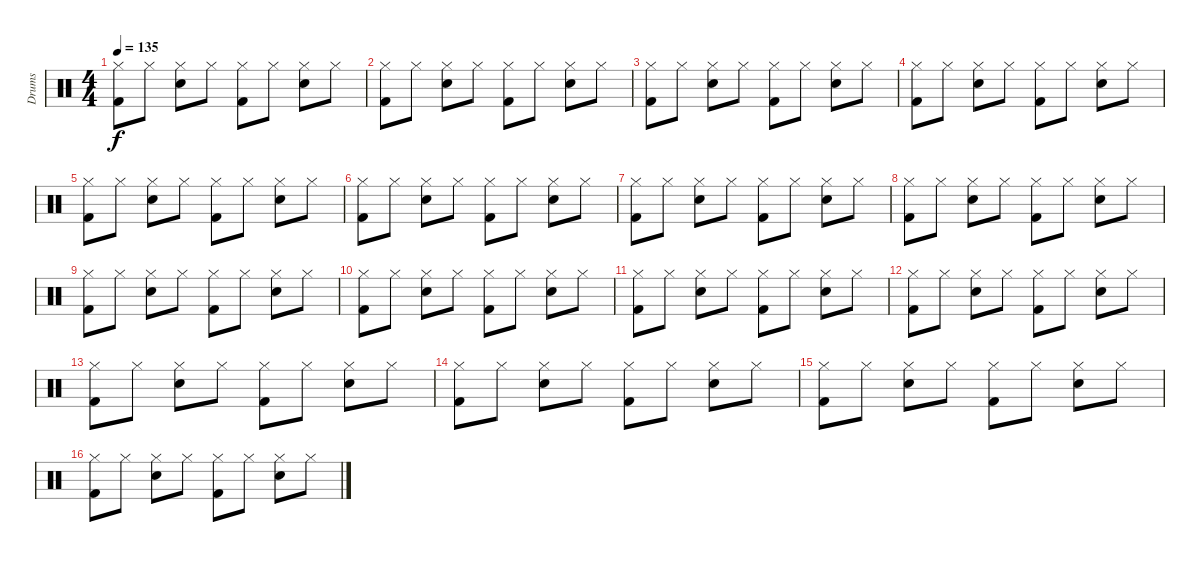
\track ("Drums" "Drums") {instrument percussion}
\staff {score}
\articulation defaults
\ts (4 4)
\tempo 135
\clef neutral
\ks c
("Hi-Hat (closed)" "Kick (hit) 2").8{dy f} "Hi-Hat (closed)".8 ("Hi-Hat (closed)" "Snare (hit) 2").8 "Hi-Hat (closed)".8 ("Hi-Hat (closed)" "Kick (hit) 2").8 "Hi-Hat (closed)".8 ("Hi-Hat (closed)" "Snare (hit) 2").8 "Hi-Hat (closed)".8 |
("Hi-Hat (closed)" "Kick (hit) 2").8 "Hi-Hat (closed)".8 ("Hi-Hat (closed)" "Snare (hit) 2").8 "Hi-Hat (closed)".8 ("Hi-Hat (closed)" "Kick (hit) 2").8 "Hi-Hat (closed)".8 ("Hi-Hat (closed)" "Snare (hit) 2").8 "Hi-Hat (closed)".8 |
("Hi-Hat (closed)" "Kick (hit) 2").8 "Hi-Hat (closed)".8 ("Hi-Hat (closed)" "Snare (hit) 2").8 "Hi-Hat (closed)".8 ("Hi-Hat (closed)" "Kick (hit) 2").8 "Hi-Hat (closed)".8 ("Hi-Hat (closed)" "Snare (hit) 2").8 "Hi-Hat (closed)".8 |
("Hi-Hat (closed)" "Kick (hit) 2").8 "Hi-Hat (closed)".8 ("Hi-Hat (closed)" "Snare (hit) 2").8 "Hi-Hat (closed)".8 ("Hi-Hat (closed)" "Kick (hit) 2").8 "Hi-Hat (closed)".8 ("Hi-Hat (closed)" "Snare (hit) 2").8 "Hi-Hat (closed)".8 |
("Hi-Hat (closed)" "Kick (hit) 2").8 "Hi-Hat (closed)".8 ("Hi-Hat (closed)" "Snare (hit) 2").8 "Hi-Hat (closed)".8 ("Hi-Hat (closed)" "Kick (hit) 2").8 "Hi-Hat (closed)".8 ("Hi-Hat (closed)" "Snare (hit) 2").8 "Hi-Hat (closed)".8 |
("Hi-Hat (closed)" "Kick (hit) 2").8 "Hi-Hat (closed)".8 ("Hi-Hat (closed)" "Snare (hit) 2").8 "Hi-Hat (closed)".8 ("Hi-Hat (closed)" "Kick (hit) 2").8 "Hi-Hat (closed)".8 ("Hi-Hat (closed)" "Snare (hit) 2").8 "Hi-Hat (closed)".8 |
("Hi-Hat (closed)" "Kick (hit) 2").8 "Hi-Hat (closed)".8 ("Hi-Hat (closed)" "Snare (hit) 2").8 "Hi-Hat (closed)".8 ("Hi-Hat (closed)" "Kick (hit) 2").8 "Hi-Hat (closed)".8 ("Hi-Hat (closed)" "Snare (hit) 2").8 "Hi-Hat (closed)".8 |
("Hi-Hat (closed)" "Kick (hit) 2").8 "Hi-Hat (closed)".8 ("Hi-Hat (closed)" "Snare (hit) 2").8 "Hi-Hat (closed)".8 ("Hi-Hat (closed)" "Kick (hit) 2").8 "Hi-Hat (closed)".8 ("Hi-Hat (closed)" "Snare (hit) 2").8 "Hi-Hat (closed)".8 |
("Hi-Hat (closed)" "Kick (hit) 2").8 "Hi-Hat (closed)".8 ("Hi-Hat (closed)" "Snare (hit) 2").8 "Hi-Hat (closed)".8 ("Hi-Hat (closed)" "Kick (hit) 2").8 "Hi-Hat (closed)".8 ("Hi-Hat (closed)" "Snare (hit) 2").8 "Hi-Hat (closed)".8 |
("Hi-Hat (closed)" "Kick (hit) 2").8 "Hi-Hat (closed)".8 ("Hi-Hat (closed)" "Snare (hit) 2").8 "Hi-Hat (closed)".8 ("Hi-Hat (closed)" "Kick (hit) 2").8 "Hi-Hat (closed)".8 ("Hi-Hat (closed)" "Snare (hit) 2").8 "Hi-Hat (closed)".8 |
("Hi-Hat (closed)" "Kick (hit) 2").8 "Hi-Hat (closed)".8 ("Hi-Hat (closed)" "Snare (hit) 2").8 "Hi-Hat (closed)".8 ("Hi-Hat (closed)" "Kick (hit) 2").8 "Hi-Hat (closed)".8 ("Hi-Hat (closed)" "Snare (hit) 2").8 "Hi-Hat (closed)".8 |
("Hi-Hat (closed)" "Kick (hit) 2").8 "Hi-Hat (closed)".8 ("Hi-Hat (closed)" "Snare (hit) 2").8 "Hi-Hat (closed)".8 ("Hi-Hat (closed)" "Kick (hit) 2").8 "Hi-Hat (closed)".8 ("Hi-Hat (closed)" "Snare (hit) 2").8 "Hi-Hat (closed)".8 |
("Hi-Hat (closed)" "Kick (hit) 2").8{volume 12} "Hi-Hat (closed)".8 ("Hi-Hat (closed)" "Snare (hit) 2").8 "Hi-Hat (closed)".8 ("Hi-Hat (closed)" "Kick (hit) 2").8 "Hi-Hat (closed)".8 ("Hi-Hat (closed)" "Snare (hit) 2").8 "Hi-Hat (closed)".8 |
("Hi-Hat (closed)" "Kick (hit) 2").8{volume 11} "Hi-Hat (closed)".8 ("Hi-Hat (closed)" "Snare (hit) 2").8 "Hi-Hat (closed)".8 ("Hi-Hat (closed)" "Kick (hit) 2").8 "Hi-Hat (closed)".8 ("Hi-Hat (closed)" "Snare (hit) 2").8 "Hi-Hat (closed)".8 |
("Hi-Hat (closed)" "Kick (hit) 2").8{volume 10} "Hi-Hat (closed)".8 ("Hi-Hat (closed)" "Snare (hit) 2").8 "Hi-Hat (closed)".8 ("Hi-Hat (closed)" "Kick (hit) 2").8 "Hi-Hat (closed)".8 ("Hi-Hat (closed)" "Snare (hit) 2").8 "Hi-Hat (closed)".8 |
("Hi-Hat (closed)" "Kick (hit) 2").8{volume 9} "Hi-Hat (closed)".8 ("Hi-Hat (closed)" "Snare (hit) 2").8 "Hi-Hat (closed)".8 ("Hi-Hat (closed)" "Kick (hit) 2").8 "Hi-Hat (closed)".8 ("Hi-Hat (closed)" "Snare (hit) 2").8 "Hi-Hat (closed)".8
